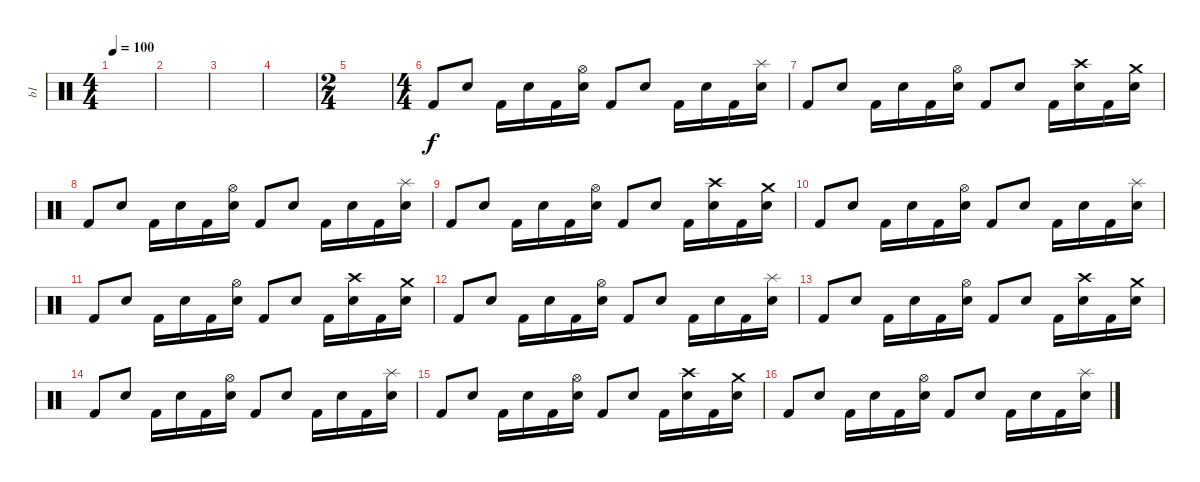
\track ("b1" "b1") {instrument percussion}
\staff {score}
\articulation defaults
\ts (4 4)
\tempo 100
\clef neutral
\ks c
|
|
|
|
\ts (2 4)
|
\ts (4 4)
"Kick (hit) 2".8 "Electric Snare (hit)".8 "Kick (hit) 2".16 "Electric Snare (hit)".16 "Kick (hit) 2".16 ("Hi-Hat (open)" "Electric Snare (hit)").16 "Kick (hit) 2".8 "Electric Snare (hit)".8 "Kick (hit) 2".16 "Electric Snare (hit)".16 "Kick (hit) 2".16 ("Splash (hit)" "Electric Snare (hit)").16 |
"Kick (hit) 2".8 "Electric Snare (hit)".8 "Kick (hit) 2".16 "Electric Snare (hit)".16 "Kick (hit) 2".16 ("Hi-Hat (open)" "Electric Snare (hit)").16 "Kick (hit) 2".8 "Electric Snare (hit)".8 "Kick (hit) 2".16 ("Crash high (hit)" "Electric Snare (hit)").16 "Kick (hit) 2".16 ("Crash medium (hit)" "Electric Snare (hit)").16 |
"Kick (hit) 2".8 "Electric Snare (hit)".8 "Kick (hit) 2".16 "Electric Snare (hit)".16 "Kick (hit) 2".16 ("Hi-Hat (open)" "Electric Snare (hit)").16 "Kick (hit) 2".8 "Electric Snare (hit)".8 "Kick (hit) 2".16 "Electric Snare (hit)".16 "Kick (hit) 2".16 ("Splash (hit)" "Electric Snare (hit)").16 |
"Kick (hit) 2".8 "Electric Snare (hit)".8 "Kick (hit) 2".16 "Electric Snare (hit)".16 "Kick (hit) 2".16 ("Hi-Hat (open)" "Electric Snare (hit)").16 "Kick (hit) 2".8 "Electric Snare (hit)".8 "Kick (hit) 2".16 ("Crash high (hit)" "Electric Snare (hit)").16 "Kick (hit) 2".16 ("Crash medium (hit)" "Electric Snare (hit)").16 |
"Kick (hit) 2".8 "Electric Snare (hit)".8 "Kick (hit) 2".16 "Electric Snare (hit)".16 "Kick (hit) 2".16 ("Hi-Hat (open)" "Electric Snare (hit)").16 "Kick (hit) 2".8 "Electric Snare (hit)".8 "Kick (hit) 2".16 "Electric Snare (hit)".16 "Kick (hit) 2".16 ("Splash (hit)" "Electric Snare (hit)").16 |
"Kick (hit) 2".8 "Electric Snare (hit)".8 "Kick (hit) 2".16 "Electric Snare (hit)".16 "Kick (hit) 2".16 ("Hi-Hat (open)" "Electric Snare (hit)").16 "Kick (hit) 2".8 "Electric Snare (hit)".8 "Kick (hit) 2".16 ("Crash high (hit)" "Electric Snare (hit)").16 "Kick (hit) 2".16 ("Crash medium (hit)" "Electric Snare (hit)").16 |
"Kick (hit) 2".8 "Electric Snare (hit)".8 "Kick (hit) 2".16 "Electric Snare (hit)".16 "Kick (hit) 2".16 ("Hi-Hat (open)" "Electric Snare (hit)").16 "Kick (hit) 2".8 "Electric Snare (hit)".8 "Kick (hit) 2".16 "Electric Snare (hit)".16 "Kick (hit) 2".16 ("Splash (hit)" "Electric Snare (hit)").16 |
"Kick (hit) 2".8 "Electric Snare (hit)".8 "Kick (hit) 2".16 "Electric Snare (hit)".16 "Kick (hit) 2".16 ("Hi-Hat (open)" "Electric Snare (hit)").16 "Kick (hit) 2".8 "Electric Snare (hit)".8 "Kick (hit) 2".16 ("Crash high (hit)" "Electric Snare (hit)").16 "Kick (hit) 2".16 ("Crash medium (hit)" "Electric Snare (hit)").16 |
"Kick (hit) 2".8 "Electric Snare (hit)".8 "Kick (hit) 2".16 "Electric Snare (hit)".16 "Kick (hit) 2".16 ("Hi-Hat (open)" "Electric Snare (hit)").16 "Kick (hit) 2".8 "Electric Snare (hit)".8 "Kick (hit) 2".16 "Electric Snare (hit)".16 "Kick (hit) 2".16 ("Splash (hit)" "Electric Snare (hit)").16 |
"Kick (hit) 2".8 "Electric Snare (hit)".8 "Kick (hit) 2".16 "Electric Snare (hit)".16 "Kick (hit) 2".16 ("Hi-Hat (open)" "Electric Snare (hit)").16 "Kick (hit) 2".8 "Electric Snare (hit)".8 "Kick (hit) 2".16 ("Crash high (hit)" "Electric Snare (hit)").16 "Kick (hit) 2".16 ("Crash medium (hit)" "Electric Snare (hit)").16 |
"Kick (hit) 2".8 "Electric Snare (hit)".8 "Kick (hit) 2".16 "Electric Snare (hit)".16 "Kick (hit) 2".16 ("Hi-Hat (open)" "Electric Snare (hit)").16 "Kick (hit) 2".8 "Electric Snare (hit)".8 "Kick (hit) 2".16 "Electric Snare (hit)".16 "Kick (hit) 2".16 ("Splash (hit)" "Electric Snare (hit)").16
